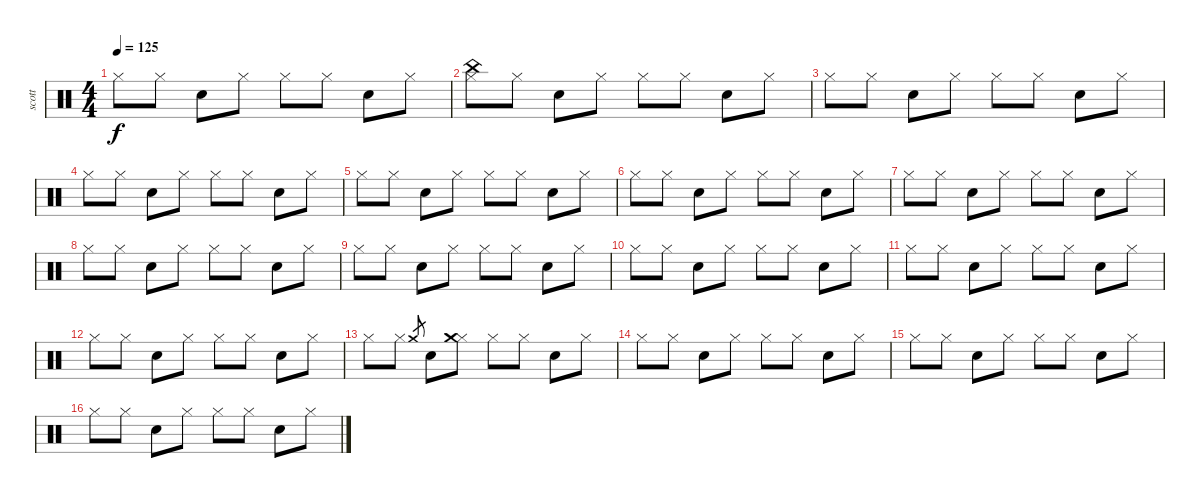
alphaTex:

\track ("scott" "scott") {instrument percussion}
\staff {score}
\articulation defaults
\ts (4 4)
\tempo 125
\clef neutral
\ks c "Hi-Hat (closed)".8{dy f} "Hi-Hat (closed)".8 "Snare (hit) 2".8 "Hi-Hat (closed)".8 "Hi-Hat (closed)".8 "Hi-Hat (closed)".8 "Snare (hit) 2".8 "Hi-Hat (closed)".8
|
("China (hit)" "Hi-Hat (closed)").8 "Hi-Hat (closed)".8 "Snare (hit) 2".8 "Hi-Hat (closed)".8 "Hi-Hat (closed)".8 "Hi-Hat (closed)".8 "Snare (hit) 2".8 "Hi-Hat (closed)".8 |
"Hi-Hat (closed)".8 "Hi-Hat (closed)".8 "Snare (hit) 2".8 "Hi-Hat (closed)".8 "Hi-Hat (closed)".8 "Hi-Hat (closed)".8 "Snare (hit) 2".8 "Hi-Hat (closed)".8 |
"Hi-Hat (closed)".8 "Hi-Hat (closed)".8 "Snare (hit) 2".8 "Hi-Hat (closed)".8 "Hi-Hat (closed)".8 "Hi-Hat (closed)".8 "Snare (hit) 2".8 "Hi-Hat (closed)".8 |
"Hi-Hat (closed)".8 "Hi-Hat (closed)".8 "Snare (hit) 2".8 "Hi-Hat (closed)".8 "Hi-Hat (closed)".8 "Hi-Hat (closed)".8 "Snare (hit) 2".8 "Hi-Hat (closed)".8 |
"Hi-Hat (closed)".8 "Hi-Hat (closed)".8 "Snare (hit) 2".8 "Hi-Hat (closed)".8 "Hi-Hat (closed)".8 "Hi-Hat (closed)".8 "Snare (hit) 2".8 "Hi-Hat (closed)".8 |
"Hi-Hat (closed)".8 "Hi-Hat (closed)".8 "Snare (hit) 2".8 "Hi-Hat (closed)".8 "Hi-Hat (closed)".8 "Hi-Hat (closed)".8 "Snare (hit) 2".8 "Hi-Hat (closed)".8 |
"Hi-Hat (closed)".8 "Hi-Hat (closed)".8 "Snare (hit) 2".8 "Hi-Hat (closed)".8 "Hi-Hat (closed)".8 "Hi-Hat (closed)".8 "Snare (hit) 2".8 "Hi-Hat (closed)".8 |
"Hi-Hat (closed)".8 "Hi-Hat (closed)".8 "Snare (hit) 2".8 "Hi-Hat (closed)".8 "Hi-Hat (closed)".8 "Hi-Hat (closed)".8 "Snare (hit) 2".8 "Hi-Hat (closed)".8 |
"Hi-Hat (closed)".8 "Hi-Hat (closed)".8 "Snare (hit) 2".8 "Hi-Hat (closed)".8 "Hi-Hat (closed)".8 "Hi-Hat (closed)".8 "Snare (hit) 2".8 "Hi-Hat (closed)".8 |
"Hi-Hat (closed)".8 "Hi-Hat (closed)".8 "Snare (hit) 2".8 "Hi-Hat (closed)".8 "Hi-Hat (closed)".8 "Hi-Hat (closed)".8 "Snare (hit) 2".8 "Hi-Hat (closed)".8 |
"Hi-Hat (closed)".8 "Hi-Hat (closed)".8 "Snare (hit) 2".8 "Hi-Hat (closed)".8 "Hi-Hat (closed)".8 "Hi-Hat (closed)".8 "Snare (hit) 2".8 "Hi-Hat (closed)".8 |
"Hi-Hat (closed)".8 "Hi-Hat (closed)".8 "Crash medium (hit)".8{gr} "Snare (hit) 2".8 ("Hi-Hat (closed)" "Crash medium (hit)").8 "Hi-Hat (closed)".8 "Hi-Hat (closed)".8 "Snare (hit) 2".8 "Hi-Hat (closed)".8 |
"Hi-Hat (closed)".8 "Hi-Hat (closed)".8 "Snare (hit) 2".8 "Hi-Hat (closed)".8 "Hi-Hat (closed)".8 "Hi-Hat (closed)".8 "Snare (hit) 2".8 "Hi-Hat (closed)".8 |
"Hi-Hat (closed)".8 "Hi-Hat (closed)".8 "Snare (hit) 2".8 "Hi-Hat (closed)".8 "Hi-Hat (closed)".8 "Hi-Hat (closed)".8 "Snare (hit) 2".8 "Hi-Hat (closed)".8 |
"Hi-Hat (closed)".8 "Hi-Hat (closed)".8 "Snare (hit) 2".8 "Hi-Hat (closed)".8 "Hi-Hat (closed)".8 "Hi-Hat (closed)".8 "Snare (hit) 2".8 "Hi-Hat (closed)".8
